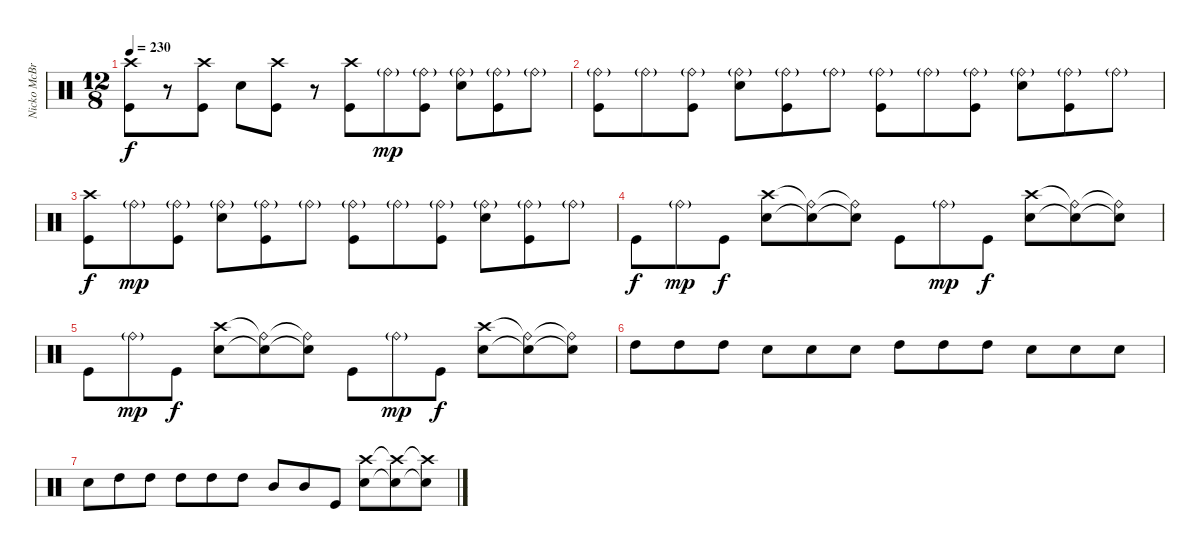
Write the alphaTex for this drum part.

\track ("Nicko McBrain" "Nicko McBr") {instrument percussion}
\staff {score}
\articulation defaults
\ts (12 8)
\tempo 230
\clef neutral
\ks c
("Crash high (hit)" "Kick (hit)").8{dy f} r.8 ("Crash high (hit)" "Kick (hit)").8 "Electric Snare (hit)".8 ("Crash high (hit)" "Kick (hit)").8 r.8 ("Crash high (hit)" "Kick (hit)").8 "Ride (bell)"{g}.8{dy mp} ("Ride (bell)"{g} "Kick (hit)").8 ("Ride (bell)"{g} "Electric Snare (hit)").8 ("Ride (bell)"{g} "Kick (hit)").8 "Ride (bell)"{g}.8 |
("Ride (bell)"{g} "Kick (hit)").8 "Ride (bell)"{g}.8 ("Ride (bell)"{g} "Kick (hit)").8 ("Ride (bell)"{g} "Electric Snare (hit)").8 ("Ride (bell)"{g} "Kick (hit)").8 "Ride (bell)"{g}.8 ("Ride (bell)"{g} "Kick (hit)").8 "Ride (bell)"{g}.8 ("Ride (bell)"{g} "Kick (hit)").8 ("Ride (bell)"{g} "Electric Snare (hit)").8 ("Ride (bell)"{g} "Kick (hit)").8 "Ride (bell)"{g}.8 |
("Crash high (hit)" "Kick (hit)").8{dy f} "Ride (bell)"{g}.8{dy mp} ("Ride (bell)"{g} "Kick (hit)").8 ("Ride (bell)"{g} "Electric Snare (hit)").8 ("Ride (bell)"{g} "Kick (hit)").8 "Ride (bell)"{g}.8 ("Ride (bell)"{g} "Kick (hit)").8 "Ride (bell)"{g}.8 ("Ride (bell)"{g} "Kick (hit)").8 ("Ride (bell)"{g} "Electric Snare (hit)").8 ("Ride (bell)"{g} "Kick (hit)").8 "Ride (bell)"{g}.8 |
"Kick (hit)".8{dy f} "Ride (bell)"{g}.8{dy mp} "Kick (hit)".8{dy f} ("Crash high (hit)" "Electric Snare (hit)").8 ("Ride (bell)"{t} "Snare (hit)"{t}).8 ("Ride (bell)"{t} "Snare (hit)"{t}).8 "Kick (hit)".8 "Ride (bell)"{g}.8{dy mp} "Kick (hit)".8{dy f} ("Crash high (hit)" "Electric Snare (hit)").8 ("Ride (bell)"{t} "Snare (hit)"{t}).8 ("Ride (bell)"{t} "Electric Snare (hit)"{t}).8 |
"Kick (hit)".8 "Ride (bell)"{g}.8{dy mp} "Kick (hit)".8{dy f} ("Crash high (hit)" "Electric Snare (hit)").8 ("Ride (bell)"{t} "Snare (hit)"{t}).8 ("Ride (bell)"{t} "Snare (hit)"{t}).8 "Kick (hit)".8 "Ride (bell)"{g}.8{dy mp} "Kick (hit)".8{dy f} ("Crash high (hit)" "Electric Snare (hit)").8 ("Ride (bell)"{t} "Snare (hit)"{t}).8 ("Ride (bell)"{t} "Electric Snare (hit)"{t}).8 |
"High Tom (hit)".8 "High Tom (hit)".8 "High Tom (hit)".8 "Electric Snare (hit)".8 "Electric Snare (hit)".8 "Electric Snare (hit)".8 "High Tom (hit)".8 "High Tom (hit)".8 "High Tom (hit)".8 "Electric Snare (hit)".8 "Electric Snare (hit)".8 "Electric Snare (hit)".8 |
"Electric Snare (hit)".8 "High Tom (hit)".8 "High Tom (hit)".8 "High Tom (hit)".8 "High Tom (hit)".8 "High Tom (hit)".8 "Mid Tom (hit)".8 "Mid Tom (hit)".8 "Kick (hit)".8 ("Crash high (hit)" "Electric Snare (hit)").8 ("Crash high (hit)"{t} "Electric Snare (hit)"{t}).8 ("Crash high (hit)"{t} "Electric Snare (hit)"{t}).8
